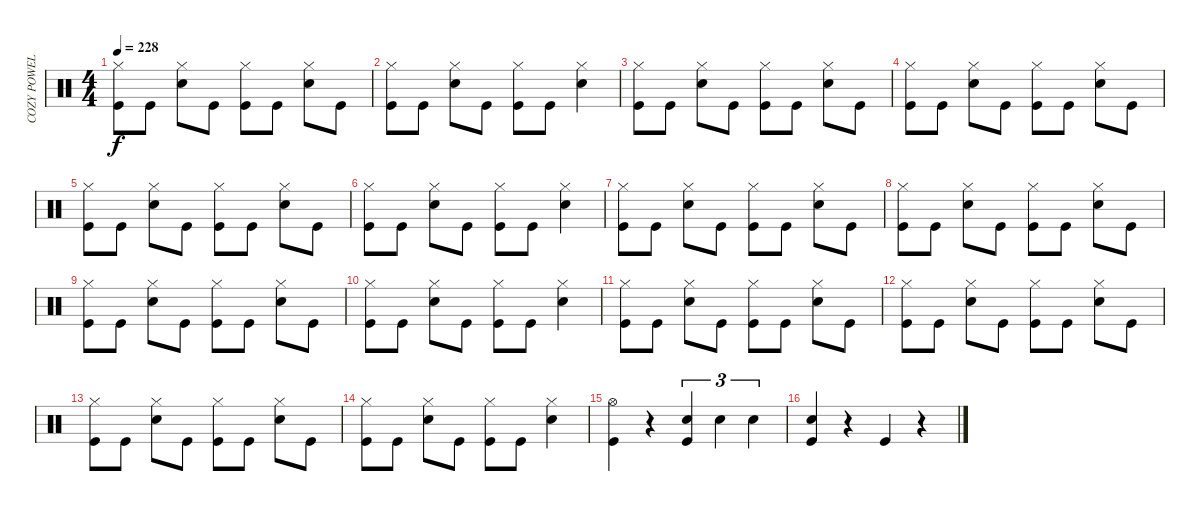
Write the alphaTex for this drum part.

\track ("COZY POWELL" "COZY POWEL") {instrument percussion}
\staff {score}
\articulation defaults
\ts (4 4)
\tempo 228
\clef neutral
\ks c
("Hi-Hat (closed)" "Kick (hit)").8{dy f} "Kick (hit)".8 ("Hi-Hat (closed)" "Snare (hit) 2").8 "Kick (hit)".8 ("Hi-Hat (closed)" "Kick (hit)").8 "Kick (hit)".8 ("Hi-Hat (closed)" "Snare (hit) 2").8 "Kick (hit)".8 |
("Hi-Hat (closed)" "Kick (hit)").8 "Kick (hit)".8 ("Hi-Hat (closed)" "Snare (hit) 2").8 "Kick (hit)".8 ("Hi-Hat (closed)" "Kick (hit)").8 "Kick (hit)".8 ("Hi-Hat (closed)" "Snare (hit) 2").4 |
("Hi-Hat (closed)" "Kick (hit)").8 "Kick (hit)".8 ("Hi-Hat (closed)" "Snare (hit) 2").8 "Kick (hit)".8 ("Hi-Hat (closed)" "Kick (hit)").8 "Kick (hit)".8 ("Hi-Hat (closed)" "Snare (hit) 2").8 "Kick (hit)".8 |
("Hi-Hat (closed)" "Kick (hit)").8 "Kick (hit)".8 ("Hi-Hat (closed)" "Snare (hit) 2").8 "Kick (hit)".8 ("Hi-Hat (closed)" "Kick (hit)").8 "Kick (hit)".8 ("Hi-Hat (closed)" "Snare (hit) 2").8 "Kick (hit)".8 |
("Hi-Hat (closed)" "Kick (hit)").8 "Kick (hit)".8 ("Hi-Hat (closed)" "Snare (hit) 2").8 "Kick (hit)".8 ("Hi-Hat (closed)" "Kick (hit)").8 "Kick (hit)".8 ("Hi-Hat (closed)" "Snare (hit) 2").8 "Kick (hit)".8 |
("Hi-Hat (closed)" "Kick (hit)").8 "Kick (hit)".8 ("Hi-Hat (closed)" "Snare (hit) 2").8 "Kick (hit)".8 ("Hi-Hat (closed)" "Kick (hit)").8 "Kick (hit)".8 ("Hi-Hat (closed)" "Snare (hit) 2").4 |
("Hi-Hat (closed)" "Kick (hit)").8 "Kick (hit)".8 ("Hi-Hat (closed)" "Snare (hit) 2").8 "Kick (hit)".8 ("Hi-Hat (closed)" "Kick (hit)").8 "Kick (hit)".8 ("Hi-Hat (closed)" "Snare (hit) 2").8 "Kick (hit)".8 |
("Hi-Hat (closed)" "Kick (hit)").8 "Kick (hit)".8 ("Hi-Hat (closed)" "Snare (hit) 2").8 "Kick (hit)".8 ("Hi-Hat (closed)" "Kick (hit)").8 "Kick (hit)".8 ("Hi-Hat (closed)" "Snare (hit) 2").8 "Kick (hit)".8 |
("Hi-Hat (closed)" "Kick (hit)").8 "Kick (hit)".8 ("Hi-Hat (closed)" "Snare (hit) 2").8 "Kick (hit)".8 ("Hi-Hat (closed)" "Kick (hit)").8 "Kick (hit)".8 ("Hi-Hat (closed)" "Snare (hit) 2").8 "Kick (hit)".8 |
("Hi-Hat (closed)" "Kick (hit)").8 "Kick (hit)".8 ("Hi-Hat (closed)" "Snare (hit) 2").8 "Kick (hit)".8 ("Hi-Hat (closed)" "Kick (hit)").8 "Kick (hit)".8 ("Hi-Hat (closed)" "Snare (hit) 2").4 |
("Hi-Hat (closed)" "Kick (hit)").8 "Kick (hit)".8 ("Hi-Hat (closed)" "Snare (hit) 2").8 "Kick (hit)".8 ("Hi-Hat (closed)" "Kick (hit)").8 "Kick (hit)".8 ("Hi-Hat (closed)" "Snare (hit) 2").8 "Kick (hit)".8 |
("Hi-Hat (closed)" "Kick (hit)").8 "Kick (hit)".8 ("Hi-Hat (closed)" "Snare (hit) 2").8 "Kick (hit)".8 ("Hi-Hat (closed)" "Kick (hit)").8 "Kick (hit)".8 ("Hi-Hat (closed)" "Snare (hit) 2").8 "Kick (hit)".8 |
("Hi-Hat (closed)" "Kick (hit)").8 "Kick (hit)".8 ("Hi-Hat (closed)" "Snare (hit) 2").8 "Kick (hit)".8 ("Hi-Hat (closed)" "Kick (hit)").8 "Kick (hit)".8 ("Hi-Hat (closed)" "Snare (hit) 2").8 "Kick (hit)".8 |
("Hi-Hat (closed)" "Kick (hit)").8 "Kick (hit)".8 ("Hi-Hat (closed)" "Snare (hit) 2").8 "Kick (hit)".8 ("Hi-Hat (closed)" "Kick (hit)").8 "Kick (hit)".8 ("Hi-Hat (closed)" "Snare (hit) 2").4 |
("Hi-Hat (open)" "Kick (hit)").4 r.4 ("Snare (hit) 2" "Kick (hit)").4{tu (3 2)} "Snare (hit) 2".4{tu (3 2)} "Snare (hit) 2".4{tu (3 2)} |
("Snare (hit) 2" "Kick (hit)").4 r.4 "Kick (hit)".4 r.4
